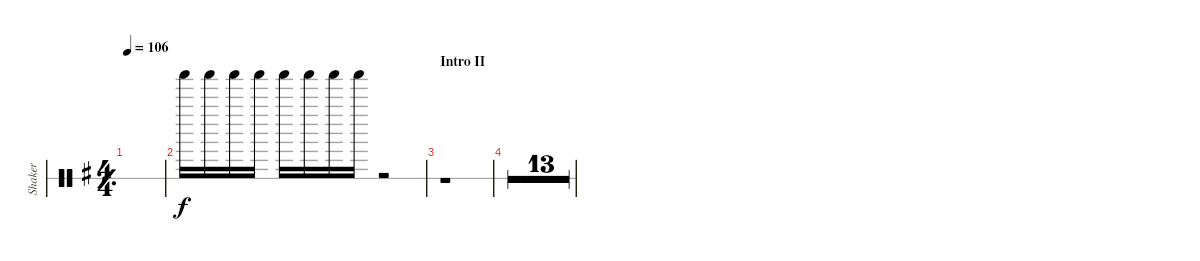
\defaultSystemsLayout 4
\bracketExtendMode groupsimilarinstruments
\otherSystemsTrackNameOrientation horizontal
\track ("Shaker" "Shaker") {multiBarRest instrument percussion}
\staff {score 1}
\articulation defaults
\ts (4 4)
\tempo 106
\clef neutral
\simile simple
\ks g
|
\simile none "Shaker (hit)"{acc forcenatural}.16 "Shaker (hit)"{acc forcenatural}.16 "Shaker (hit)"{acc forcenatural}.16 "Shaker (hit)"{acc forcenatural}.16 "Shaker (hit)"{acc forcenatural}.16 "Shaker (hit)"{acc forcenatural}.16 "Shaker (hit)"{acc forcenatural}.16 "Shaker (hit)"{acc forcenatural}.16
r.2 |
\section ("" "Intro II")
r.1 |
r.1 |
r.1 |
r.1 |
r.1 |
r.1 |
r.1 |
r.1 |
r.1 |
r.1 |
r.1 |
r.1 |
r.1 |
r.1
